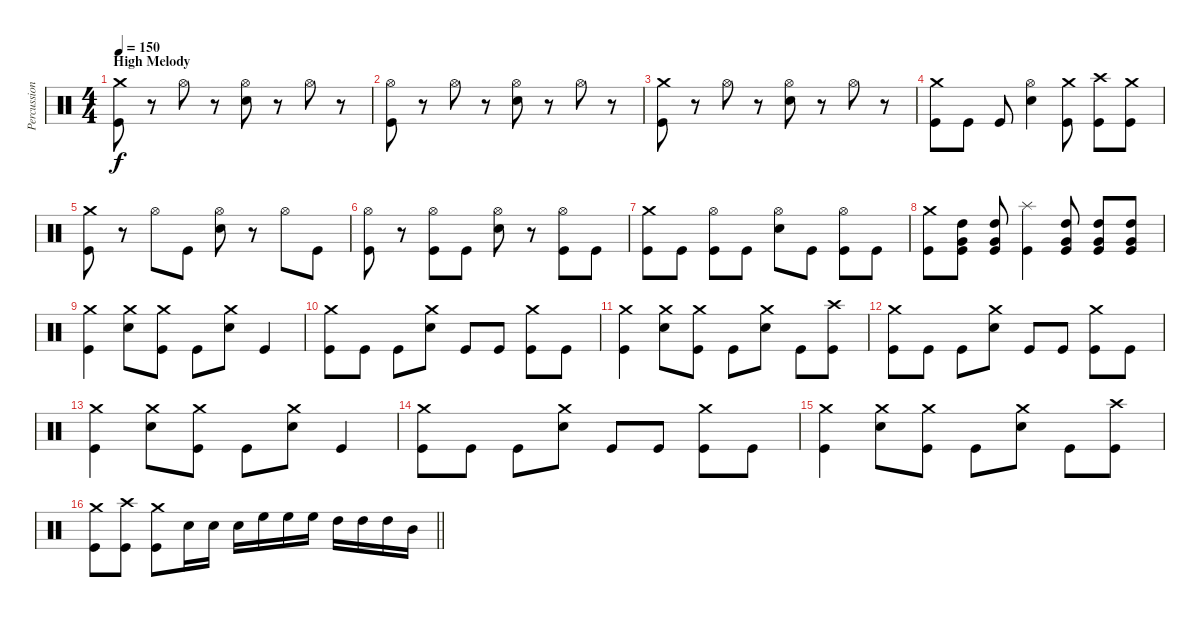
\track ("Percussion" "Percussion") {instrument percussion}
\staff {score}
\articulation defaults
\ts (4 4)
\section ("" "High Melody")
\tempo 150
\clef neutral
\ks c
("Crash medium (hit)" "Kick (hit)").8{dy f} r.8 "Hi-Hat (open)".8 r.8 ("Hi-Hat (open)" "Snare (hit) 2").8 r.8 "Hi-Hat (open)".8 r.8 |
("Hi-Hat (open)" "Kick (hit)").8 r.8 "Hi-Hat (open)".8 r.8 ("Hi-Hat (open)" "Snare (hit) 2").8 r.8 "Hi-Hat (open)".8 r.8 |
("Crash medium (hit)" "Kick (hit)").8 r.8 "Hi-Hat (open)".8 r.8 ("Hi-Hat (open)" "Snare (hit) 2").8 r.8 "Hi-Hat (open)".8 r.8 |
("Crash medium (hit)" "Kick (hit)").8 "Kick (hit)".8 "Kick (hit)".8 ("Hi-Hat (open)" "Snare (hit) 2").4 ("Crash medium (hit)" "Kick (hit)").8 ("Crash high (hit)" "Kick (hit)").8 ("Crash medium (hit)" "Kick (hit)").8 |
("Crash medium (hit)" "Kick (hit)").8 r.8 "Hi-Hat (open)".8 "Kick (hit)".8 ("Hi-Hat (open)" "Snare (hit) 2").8 r.8 "Hi-Hat (open)".8 "Kick (hit)".8 |
("Hi-Hat (open)" "Kick (hit)").8 r.8 ("Hi-Hat (open)" "Kick (hit)").8 "Kick (hit)".8 ("Hi-Hat (open)" "Snare (hit) 2").8 r.8 ("Hi-Hat (open)" "Kick (hit)").8 "Kick (hit)".8 |
("Crash medium (hit)" "Kick (hit)").8 "Kick (hit)".8 ("Hi-Hat (open)" "Kick (hit)").8 "Kick (hit)".8 ("Hi-Hat (open)" "Snare (hit) 2").8 "Kick (hit)".8 ("Hi-Hat (open)" "Kick (hit)").8 "Kick (hit)".8 |
("Crash medium (hit)" "Kick (hit)").8 ("High Tom (hit)" "Very Low Tom (hit)" "Kick (hit)").8 ("High Tom (hit)" "Very Low Tom (hit)" "Kick (hit)").8 ("Splash (hit)" "Kick (hit)").4 ("High Tom (hit)" "Very Low Tom (hit)" "Kick (hit)").8 ("High Tom (hit)" "Very Low Tom (hit)" "Kick (hit)").8 ("High Tom (hit)" "Very Low Tom (hit)" "Kick (hit)").8 |
("Crash medium (hit)" "Kick (hit)").4 ("Crash medium (hit)" "Snare (hit) 2").8 ("Crash medium (hit)" "Kick (hit)").8 "Kick (hit)".8 ("Crash medium (hit)" "Snare (hit) 2").8 "Kick (hit)".4 |
("Crash medium (hit)" "Kick (hit)").8 "Kick (hit)".8 "Kick (hit)".8 ("Crash medium (hit)" "Snare (hit) 2").8 "Kick (hit)".8 "Kick (hit)".8 ("Crash medium (hit)" "Kick (hit)").8 "Kick (hit)".8 |
("Crash medium (hit)" "Kick (hit)").4 ("Crash medium (hit)" "Snare (hit) 2").8 ("Crash medium (hit)" "Kick (hit)").8 "Kick (hit)".8 ("Crash medium (hit)" "Snare (hit) 2").8 "Kick (hit)".8 ("Crash high (hit)" "Kick (hit)").8 |
("Crash medium (hit)" "Kick (hit)").8 "Kick (hit)".8 "Kick (hit)".8 ("Crash medium (hit)" "Snare (hit) 2").8 "Kick (hit)".8 "Kick (hit)".8 ("Crash medium (hit)" "Kick (hit)").8 "Kick (hit)".8 |
("Crash medium (hit)" "Kick (hit)").4 ("Crash medium (hit)" "Snare (hit) 2").8 ("Crash medium (hit)" "Kick (hit)").8 "Kick (hit)".8 ("Crash medium (hit)" "Snare (hit) 2").8 "Kick (hit)".4 |
("Crash medium (hit)" "Kick (hit)").8 "Kick (hit)".8 "Kick (hit)".8 ("Crash medium (hit)" "Snare (hit) 2").8 "Kick (hit)".8 "Kick (hit)".8 ("Crash medium (hit)" "Kick (hit)").8 "Kick (hit)".8 |
("Crash medium (hit)" "Kick (hit)").4 ("Crash medium (hit)" "Snare (hit) 2").8 ("Crash medium (hit)" "Kick (hit)").8 "Kick (hit)".8 ("Crash medium (hit)" "Snare (hit) 2").8 "Kick (hit)".8 ("Crash high (hit)" "Kick (hit)").8 |
\barLineRight lightlight
("Crash medium (hit)" "Kick (hit)").8 ("Crash high (hit)" "Kick (hit)").8 ("Crash medium (hit)" "Kick (hit)").8 "Snare (hit) 2".16 "Snare (hit) 2".16 "Snare (hit) 2".16 "High Floor Tom (hit)".16 "High Floor Tom (hit)".16 "High Floor Tom (hit)".16 "High Tom (hit)".16 "High Tom (hit)".16 "High Tom (hit)".16 "Mid Tom (hit)".16
